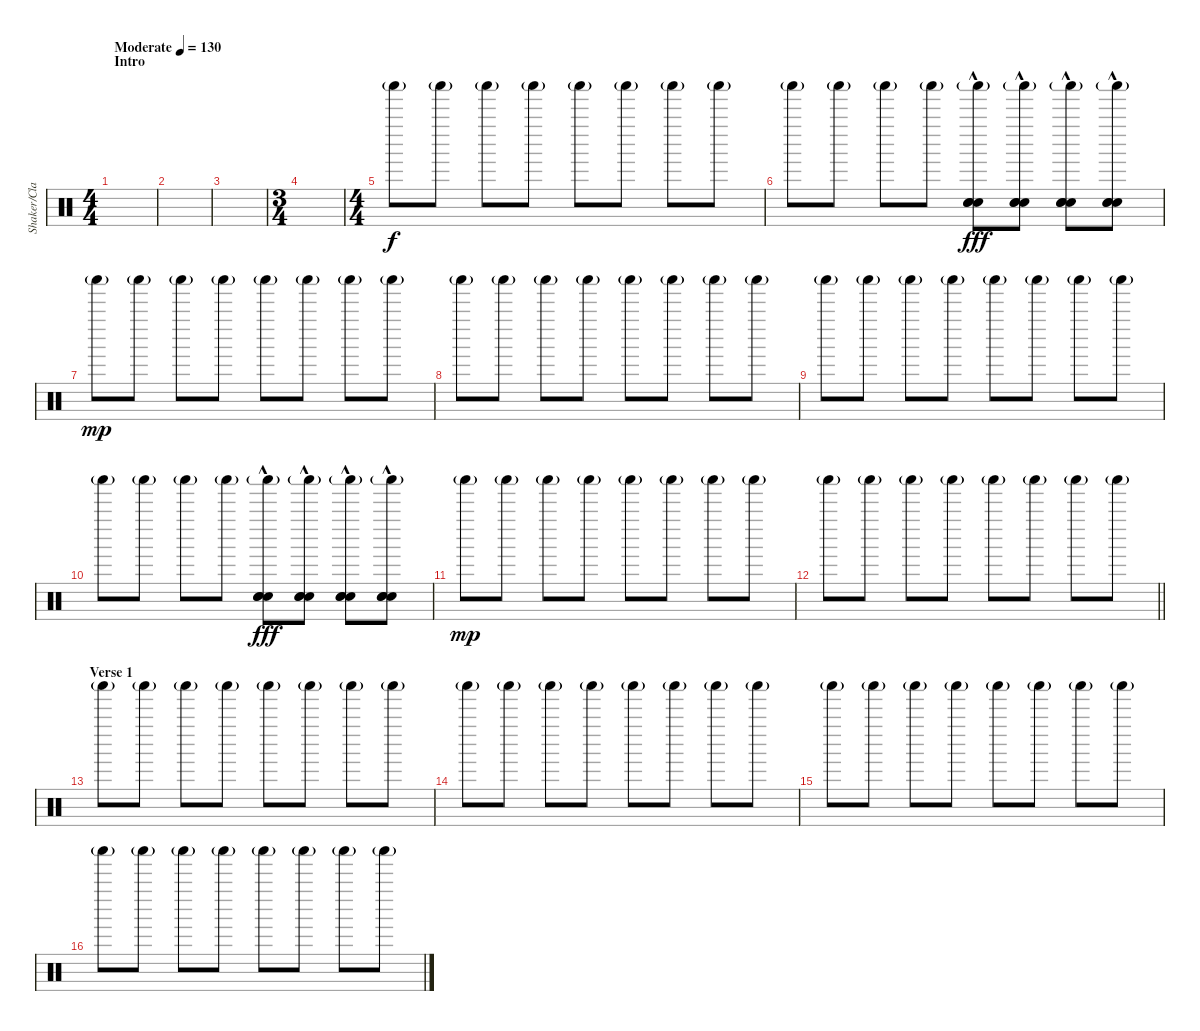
\track ("Shaker/Claps" "Shaker/Cla") {instrument percussion}
\staff {score}
\articulation defaults
\ts (4 4)
\section ("" "Intro")
\tempo (130 "Moderate")
\clef neutral
\ks c
|
|
|
\ts (3 4)
|
\ts (4 4)
"Shaker (hit)"{g}.8 "Shaker (hit)"{g}.8 "Shaker (hit)"{g}.8 "Shaker (hit)"{g}.8 "Shaker (hit)"{g}.8 "Shaker (hit)"{g}.8 "Shaker (hit)"{g}.8 "Shaker (hit)"{g}.8 |
"Shaker (hit)"{g}.8 "Shaker (hit)"{g}.8 "Shaker (hit)"{g}.8 "Shaker (hit)"{g}.8 ("Shaker (hit)"{g} "Hand Clap (hit)" "Hand Clap (hit)"{hac} "Hand Clap (hit)"{hac}).8{dy fff} ("Shaker (hit)"{g} "Hand Clap (hit)"{hac} "Hand Clap (hit)"{hac} "Hand Clap (hit)"{hac}).8 ("Shaker (hit)"{g} "Hand Clap (hit)"{hac} "Hand Clap (hit)"{hac} "Hand Clap (hit)"{hac}).8 ("Shaker (hit)"{g} "Hand Clap (hit)"{hac} "Hand Clap (hit)"{hac} "Hand Clap (hit)"{hac}).8 |
"Shaker (hit)"{g}.8{dy mp} "Shaker (hit)"{g}.8 "Shaker (hit)"{g}.8 "Shaker (hit)"{g}.8 "Shaker (hit)"{g}.8 "Shaker (hit)"{g}.8 "Shaker (hit)"{g}.8 "Shaker (hit)"{g}.8 |
"Shaker (hit)"{g}.8 "Shaker (hit)"{g}.8 "Shaker (hit)"{g}.8 "Shaker (hit)"{g}.8 "Shaker (hit)"{g}.8 "Shaker (hit)"{g}.8 "Shaker (hit)"{g}.8 "Shaker (hit)"{g}.8 |
"Shaker (hit)"{g}.8 "Shaker (hit)"{g}.8 "Shaker (hit)"{g}.8 "Shaker (hit)"{g}.8 "Shaker (hit)"{g}.8 "Shaker (hit)"{g}.8 "Shaker (hit)"{g}.8 "Shaker (hit)"{g}.8 |
"Shaker (hit)"{g}.8 "Shaker (hit)"{g}.8 "Shaker (hit)"{g}.8 "Shaker (hit)"{g}.8 ("Shaker (hit)"{g} "Hand Clap (hit)" "Hand Clap (hit)"{hac} "Hand Clap (hit)"{hac}).8{dy fff} ("Shaker (hit)"{g} "Hand Clap (hit)"{hac} "Hand Clap (hit)"{hac} "Hand Clap (hit)"{hac}).8 ("Shaker (hit)"{g} "Hand Clap (hit)"{hac} "Hand Clap (hit)"{hac} "Hand Clap (hit)"{hac}).8 ("Shaker (hit)"{g} "Hand Clap (hit)"{hac} "Hand Clap (hit)"{hac} "Hand Clap (hit)"{hac}).8 |
"Shaker (hit)"{g}.8{dy mp} "Shaker (hit)"{g}.8 "Shaker (hit)"{g}.8 "Shaker (hit)"{g}.8 "Shaker (hit)"{g}.8 "Shaker (hit)"{g}.8 "Shaker (hit)"{g}.8 "Shaker (hit)"{g}.8 |
\barLineRight lightlight "Shaker (hit)"{g}.8 "Shaker (hit)"{g}.8 "Shaker (hit)"{g}.8 "Shaker (hit)"{g}.8 "Shaker (hit)"{g}.8 "Shaker (hit)"{g}.8 "Shaker (hit)"{g}.8 "Shaker (hit)"{g}.8
|
\section ("" "Verse 1")
"Shaker (hit)"{g}.8 "Shaker (hit)"{g}.8 "Shaker (hit)"{g}.8 "Shaker (hit)"{g}.8 "Shaker (hit)"{g}.8 "Shaker (hit)"{g}.8 "Shaker (hit)"{g}.8 "Shaker (hit)"{g}.8 |
"Shaker (hit)"{g}.8 "Shaker (hit)"{g}.8 "Shaker (hit)"{g}.8 "Shaker (hit)"{g}.8 "Shaker (hit)"{g}.8 "Shaker (hit)"{g}.8 "Shaker (hit)"{g}.8 "Shaker (hit)"{g}.8 |
"Shaker (hit)"{g}.8 "Shaker (hit)"{g}.8 "Shaker (hit)"{g}.8 "Shaker (hit)"{g}.8 "Shaker (hit)"{g}.8 "Shaker (hit)"{g}.8 "Shaker (hit)"{g}.8 "Shaker (hit)"{g}.8 |
"Shaker (hit)"{g}.8 "Shaker (hit)"{g}.8 "Shaker (hit)"{g}.8 "Shaker (hit)"{g}.8 "Shaker (hit)"{g}.8 "Shaker (hit)"{g}.8 "Shaker (hit)"{g}.8 "Shaker (hit)"{g}.8
